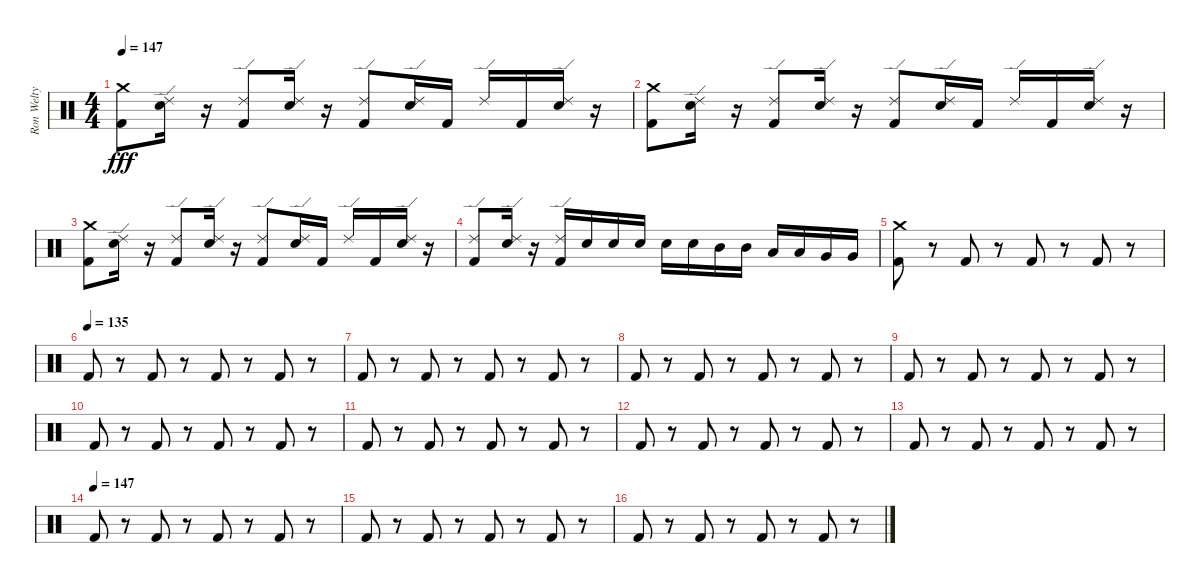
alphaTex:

\track ("Ron Welty" "Ron Welty") {instrument percussion}
\staff {score}
\articulation defaults
\ts (4 4)
\tempo 147
\clef neutral
\ks c
("Kick (hit) 2" "Crash medium (hit)").8{dy fff} ("Snare (hit) 2" "Ride (edge) 2").16 r.16 ("Kick (hit) 2" "Ride (edge) 2").8 ("Snare (hit) 2" "Ride (edge) 2").16 r.16 ("Kick (hit) 2" "Ride (edge) 2").8 ("Snare (hit) 2" "Ride (edge) 2").16 "Kick (hit) 2".16 "Ride (edge) 2".16 "Kick (hit) 2".16 ("Snare (hit) 2" "Ride (edge) 2").16 r.16 |
("Kick (hit) 2" "Crash medium (hit)").8 ("Snare (hit) 2" "Ride (edge) 2").16 r.16 ("Kick (hit) 2" "Ride (edge) 2").8 ("Snare (hit) 2" "Ride (edge) 2").16 r.16 ("Kick (hit) 2" "Ride (edge) 2").8 ("Snare (hit) 2" "Ride (edge) 2").16 "Kick (hit) 2".16 "Ride (edge) 2".16 "Kick (hit) 2".16 ("Snare (hit) 2" "Ride (edge) 2").16 r.16 |
("Kick (hit) 2" "Crash medium (hit)").8 ("Snare (hit) 2" "Ride (edge) 2").16 r.16 ("Kick (hit) 2" "Ride (edge) 2").8 ("Snare (hit) 2" "Ride (edge) 2").16 r.16 ("Kick (hit) 2" "Ride (edge) 2").8 ("Snare (hit) 2" "Ride (edge) 2").16 "Kick (hit) 2".16 "Ride (edge) 2".16 "Kick (hit) 2".16 ("Snare (hit) 2" "Ride (edge) 2").16 r.16 |
("Kick (hit) 2" "Ride (edge) 2").8 ("Snare (hit) 2" "Ride (edge) 2").16 r.16 ("Kick (hit) 2" "Ride (edge) 2").16 "Snare (hit) 2".16 "Snare (hit) 2".16 "Snare (hit) 2".16 "Snare (hit) 2".16 "Snare (hit) 2".16 "Mid Tom (hit)".16 "Mid Tom (hit)".16 "Low Tom (hit)".16 "Low Tom (hit)".16 "Very Low Tom (hit)".16 "Very Low Tom (hit)".16 |
("Kick (hit) 2" "Crash medium (hit)").8 r.8 "Kick (hit) 2".8 r.8 "Kick (hit) 2".8 r.8 "Kick (hit) 2".8 r.8 |
\tempo (135)
"Kick (hit) 2".8 r.8 "Kick (hit) 2".8 r.8 "Kick (hit) 2".8 r.8 "Kick (hit) 2".8 r.8 |
"Kick (hit) 2".8 r.8 "Kick (hit) 2".8 r.8 "Kick (hit) 2".8 r.8 "Kick (hit) 2".8 r.8 |
"Kick (hit) 2".8 r.8 "Kick (hit) 2".8 r.8 "Kick (hit) 2".8 r.8 "Kick (hit) 2".8 r.8 |
"Kick (hit) 2".8 r.8 "Kick (hit) 2".8 r.8 "Kick (hit) 2".8 r.8 "Kick (hit) 2".8 r.8 |
"Kick (hit) 2".8 r.8 "Kick (hit) 2".8 r.8 "Kick (hit) 2".8 r.8 "Kick (hit) 2".8 r.8 |
"Kick (hit) 2".8 r.8 "Kick (hit) 2".8 r.8 "Kick (hit) 2".8 r.8 "Kick (hit) 2".8 r.8 |
"Kick (hit) 2".8 r.8 "Kick (hit) 2".8 r.8 "Kick (hit) 2".8 r.8 "Kick (hit) 2".8 r.8 |
"Kick (hit) 2".8 r.8 "Kick (hit) 2".8 r.8 "Kick (hit) 2".8 r.8 "Kick (hit) 2".8 r.8 |
\tempo (147)
"Kick (hit) 2".8 r.8 "Kick (hit) 2".8 r.8 "Kick (hit) 2".8 r.8 "Kick (hit) 2".8 r.8 |
"Kick (hit) 2".8 r.8 "Kick (hit) 2".8 r.8 "Kick (hit) 2".8 r.8 "Kick (hit) 2".8 r.8 |
"Kick (hit) 2".8 r.8 "Kick (hit) 2".8 r.8 "Kick (hit) 2".8 r.8 "Kick (hit) 2".8 r.8
